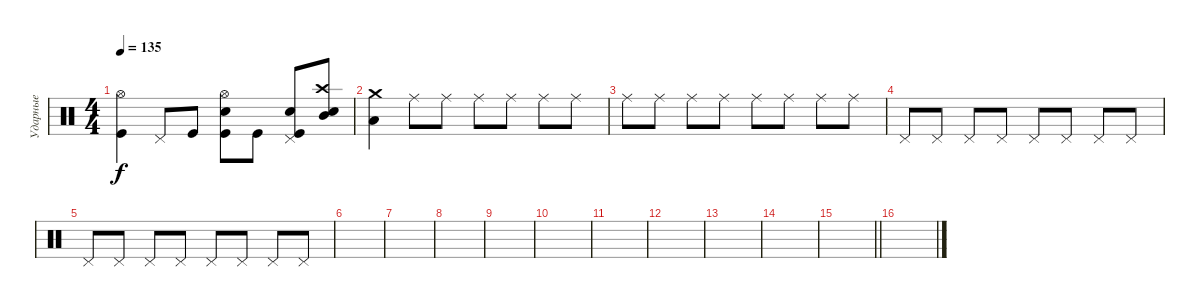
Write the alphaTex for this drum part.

\track ("Ударные" "Ударные") {instrument percussion}
\staff {score}
\articulation defaults
\ts (4 4)
\tempo 135
\clef neutral
\ks c
("Hi-Hat (open)" "Kick (hit)").4{dy f} "Pedal Hi-Hat (hit)".8 "Kick (hit)".8 ("Hi-Hat (open)" "Electric Snare (hit)" "Kick (hit)").8 "Kick (hit)".8 ("Pedal Hi-Hat (hit)" "Electric Snare (hit)" "Kick (hit)").8 ("Crash high (hit)" "Mid Tom (hit)" "Electric Snare (hit)").8 |
("Crash medium (hit)" "Low Tom (hit)").4 "Ride (middle)".8 "Ride (middle)".8 "Ride (middle)".8 "Ride (middle)".8 "Ride (middle)".8 "Ride (middle)".8 |
"Ride (middle)".8 "Ride (middle)".8 "Ride (middle)".8 "Ride (middle)".8 "Ride (middle)".8 "Ride (middle)".8 "Ride (middle)".8 "Ride (middle)".8 |
"Pedal Hi-Hat (hit)".8 "Pedal Hi-Hat (hit)".8 "Pedal Hi-Hat (hit)".8 "Pedal Hi-Hat (hit)".8 "Pedal Hi-Hat (hit)".8 "Pedal Hi-Hat (hit)".8 "Pedal Hi-Hat (hit)".8 "Pedal Hi-Hat (hit)".8 |
"Pedal Hi-Hat (hit)".8 "Pedal Hi-Hat (hit)".8 "Pedal Hi-Hat (hit)".8 "Pedal Hi-Hat (hit)".8 "Pedal Hi-Hat (hit)".8 "Pedal Hi-Hat (hit)".8 "Pedal Hi-Hat (hit)".8 "Pedal Hi-Hat (hit)".8 |
|
|
|
|
|
|
|
|
|
\barLineRight lightlight
|
\section ("" " ")
